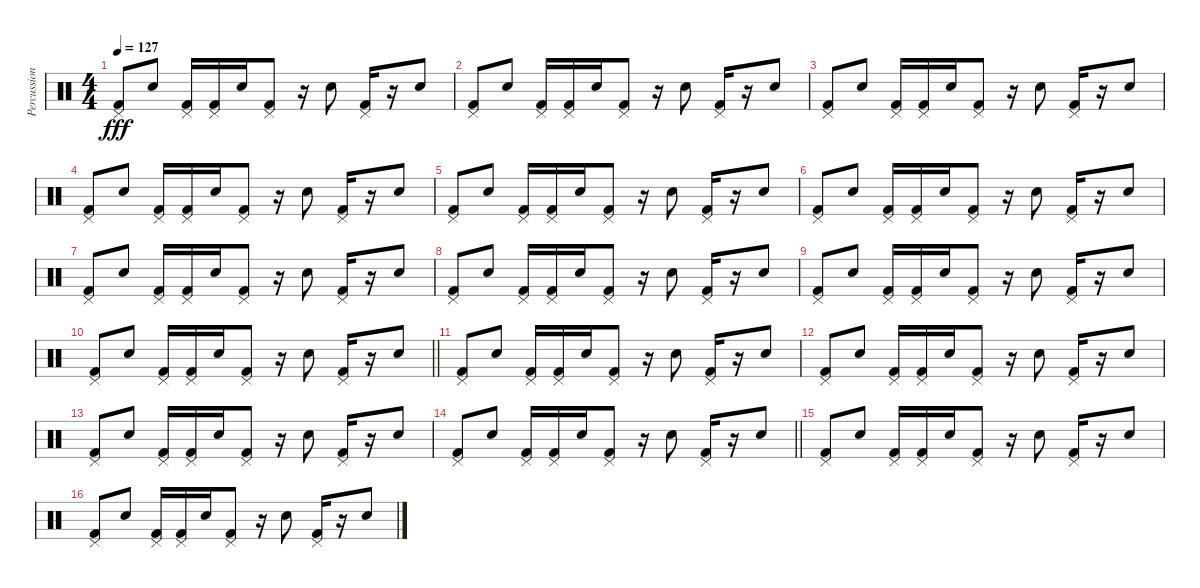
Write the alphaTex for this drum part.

\track ("Percussion" "Percussion") {instrument percussion}
\staff {score}
\articulation defaults
\ts (4 4)
\tempo 127
\clef neutral
\ks c
("Pedal Hi-Hat (hit)" "Kick (hit) 2").8{dy fff} "Snare (hit) 2".8 ("Pedal Hi-Hat (hit)" "Kick (hit) 2").16 ("Pedal Hi-Hat (hit)" "Kick (hit) 2").16 "Snare (hit) 2".16 ("Pedal Hi-Hat (hit)" "Kick (hit) 2").8 r.16 "Snare (hit) 2".8 ("Pedal Hi-Hat (hit)" "Kick (hit) 2").16 r.16 "Snare (hit) 2".8 |
("Pedal Hi-Hat (hit)" "Kick (hit) 2").8 "Snare (hit) 2".8 ("Pedal Hi-Hat (hit)" "Kick (hit) 2").16 ("Pedal Hi-Hat (hit)" "Kick (hit) 2").16 "Snare (hit) 2".16 ("Pedal Hi-Hat (hit)" "Kick (hit) 2").8 r.16 "Snare (hit) 2".8 ("Pedal Hi-Hat (hit)" "Kick (hit) 2").16 r.16 "Snare (hit) 2".8 |
("Pedal Hi-Hat (hit)" "Kick (hit) 2").8 "Snare (hit) 2".8 ("Pedal Hi-Hat (hit)" "Kick (hit) 2").16 ("Pedal Hi-Hat (hit)" "Kick (hit) 2").16 "Snare (hit) 2".16 ("Pedal Hi-Hat (hit)" "Kick (hit) 2").8 r.16 "Snare (hit) 2".8 ("Pedal Hi-Hat (hit)" "Kick (hit) 2").16 r.16 "Snare (hit) 2".8 |
("Pedal Hi-Hat (hit)" "Kick (hit) 2").8 "Snare (hit) 2".8 ("Pedal Hi-Hat (hit)" "Kick (hit) 2").16 ("Pedal Hi-Hat (hit)" "Kick (hit) 2").16 "Snare (hit) 2".16 ("Pedal Hi-Hat (hit)" "Kick (hit) 2").8 r.16 "Snare (hit) 2".8 ("Pedal Hi-Hat (hit)" "Kick (hit) 2").16 r.16 "Snare (hit) 2".8 |
("Pedal Hi-Hat (hit)" "Kick (hit) 2").8 "Snare (hit) 2".8 ("Pedal Hi-Hat (hit)" "Kick (hit) 2").16 ("Pedal Hi-Hat (hit)" "Kick (hit) 2").16 "Snare (hit) 2".16 ("Pedal Hi-Hat (hit)" "Kick (hit) 2").8 r.16 "Snare (hit) 2".8 ("Pedal Hi-Hat (hit)" "Kick (hit) 2").16 r.16 "Snare (hit) 2".8 |
("Pedal Hi-Hat (hit)" "Kick (hit) 2").8 "Snare (hit) 2".8 ("Pedal Hi-Hat (hit)" "Kick (hit) 2").16 ("Pedal Hi-Hat (hit)" "Kick (hit) 2").16 "Snare (hit) 2".16 ("Pedal Hi-Hat (hit)" "Kick (hit) 2").8 r.16 "Snare (hit) 2".8 ("Pedal Hi-Hat (hit)" "Kick (hit) 2").16 r.16 "Snare (hit) 2".8 |
("Pedal Hi-Hat (hit)" "Kick (hit) 2").8 "Snare (hit) 2".8 ("Pedal Hi-Hat (hit)" "Kick (hit) 2").16 ("Pedal Hi-Hat (hit)" "Kick (hit) 2").16 "Snare (hit) 2".16 ("Pedal Hi-Hat (hit)" "Kick (hit) 2").8 r.16 "Snare (hit) 2".8 ("Pedal Hi-Hat (hit)" "Kick (hit) 2").16 r.16 "Snare (hit) 2".8 |
("Pedal Hi-Hat (hit)" "Kick (hit) 2").8 "Snare (hit) 2".8 ("Pedal Hi-Hat (hit)" "Kick (hit) 2").16 ("Pedal Hi-Hat (hit)" "Kick (hit) 2").16 "Snare (hit) 2".16 ("Pedal Hi-Hat (hit)" "Kick (hit) 2").8 r.16 "Snare (hit) 2".8 ("Pedal Hi-Hat (hit)" "Kick (hit) 2").16 r.16 "Snare (hit) 2".8 |
("Pedal Hi-Hat (hit)" "Kick (hit) 2").8 "Snare (hit) 2".8 ("Pedal Hi-Hat (hit)" "Kick (hit) 2").16 ("Pedal Hi-Hat (hit)" "Kick (hit) 2").16 "Snare (hit) 2".16 ("Pedal Hi-Hat (hit)" "Kick (hit) 2").8 r.16 "Snare (hit) 2".8 ("Pedal Hi-Hat (hit)" "Kick (hit) 2").16 r.16 "Snare (hit) 2".8 |
\barLineRight lightlight
("Pedal Hi-Hat (hit)" "Kick (hit) 2").8 "Snare (hit) 2".8 ("Pedal Hi-Hat (hit)" "Kick (hit) 2").16 ("Pedal Hi-Hat (hit)" "Kick (hit) 2").16 "Snare (hit) 2".16 ("Pedal Hi-Hat (hit)" "Kick (hit) 2").8 r.16 "Snare (hit) 2".8 ("Pedal Hi-Hat (hit)" "Kick (hit) 2").16 r.16 "Snare (hit) 2".8 |
("Pedal Hi-Hat (hit)" "Kick (hit) 2").8 "Snare (hit) 2".8 ("Pedal Hi-Hat (hit)" "Kick (hit) 2").16 ("Pedal Hi-Hat (hit)" "Kick (hit) 2").16 "Snare (hit) 2".16 ("Pedal Hi-Hat (hit)" "Kick (hit) 2").8 r.16 "Snare (hit) 2".8 ("Pedal Hi-Hat (hit)" "Kick (hit) 2").16 r.16 "Snare (hit) 2".8 |
("Pedal Hi-Hat (hit)" "Kick (hit) 2").8 "Snare (hit) 2".8 ("Pedal Hi-Hat (hit)" "Kick (hit) 2").16 ("Pedal Hi-Hat (hit)" "Kick (hit) 2").16 "Snare (hit) 2".16 ("Pedal Hi-Hat (hit)" "Kick (hit) 2").8 r.16 "Snare (hit) 2".8 ("Pedal Hi-Hat (hit)" "Kick (hit) 2").16 r.16 "Snare (hit) 2".8 |
("Pedal Hi-Hat (hit)" "Kick (hit) 2").8 "Snare (hit) 2".8 ("Pedal Hi-Hat (hit)" "Kick (hit) 2").16 ("Pedal Hi-Hat (hit)" "Kick (hit) 2").16 "Snare (hit) 2".16 ("Pedal Hi-Hat (hit)" "Kick (hit) 2").8 r.16 "Snare (hit) 2".8 ("Pedal Hi-Hat (hit)" "Kick (hit) 2").16 r.16 "Snare (hit) 2".8 |
\barLineRight lightlight
("Pedal Hi-Hat (hit)" "Kick (hit) 2").8 "Snare (hit) 2".8 ("Pedal Hi-Hat (hit)" "Kick (hit) 2").16 ("Pedal Hi-Hat (hit)" "Kick (hit) 2").16 "Snare (hit) 2".16 ("Pedal Hi-Hat (hit)" "Kick (hit) 2").8 r.16 "Snare (hit) 2".8 ("Pedal Hi-Hat (hit)" "Kick (hit) 2").16 r.16 "Snare (hit) 2".8 |
("Pedal Hi-Hat (hit)" "Kick (hit) 2").8 "Snare (hit) 2".8 ("Pedal Hi-Hat (hit)" "Kick (hit) 2").16 ("Pedal Hi-Hat (hit)" "Kick (hit) 2").16 "Snare (hit) 2".16 ("Pedal Hi-Hat (hit)" "Kick (hit) 2").8 r.16 "Snare (hit) 2".8 ("Pedal Hi-Hat (hit)" "Kick (hit) 2").16 r.16 "Snare (hit) 2".8 |
("Pedal Hi-Hat (hit)" "Kick (hit) 2").8 "Snare (hit) 2".8 ("Pedal Hi-Hat (hit)" "Kick (hit) 2").16 ("Pedal Hi-Hat (hit)" "Kick (hit) 2").16 "Snare (hit) 2".16 ("Pedal Hi-Hat (hit)" "Kick (hit) 2").8 r.16 "Snare (hit) 2".8 ("Pedal Hi-Hat (hit)" "Kick (hit) 2").16 r.16 "Snare (hit) 2".8
